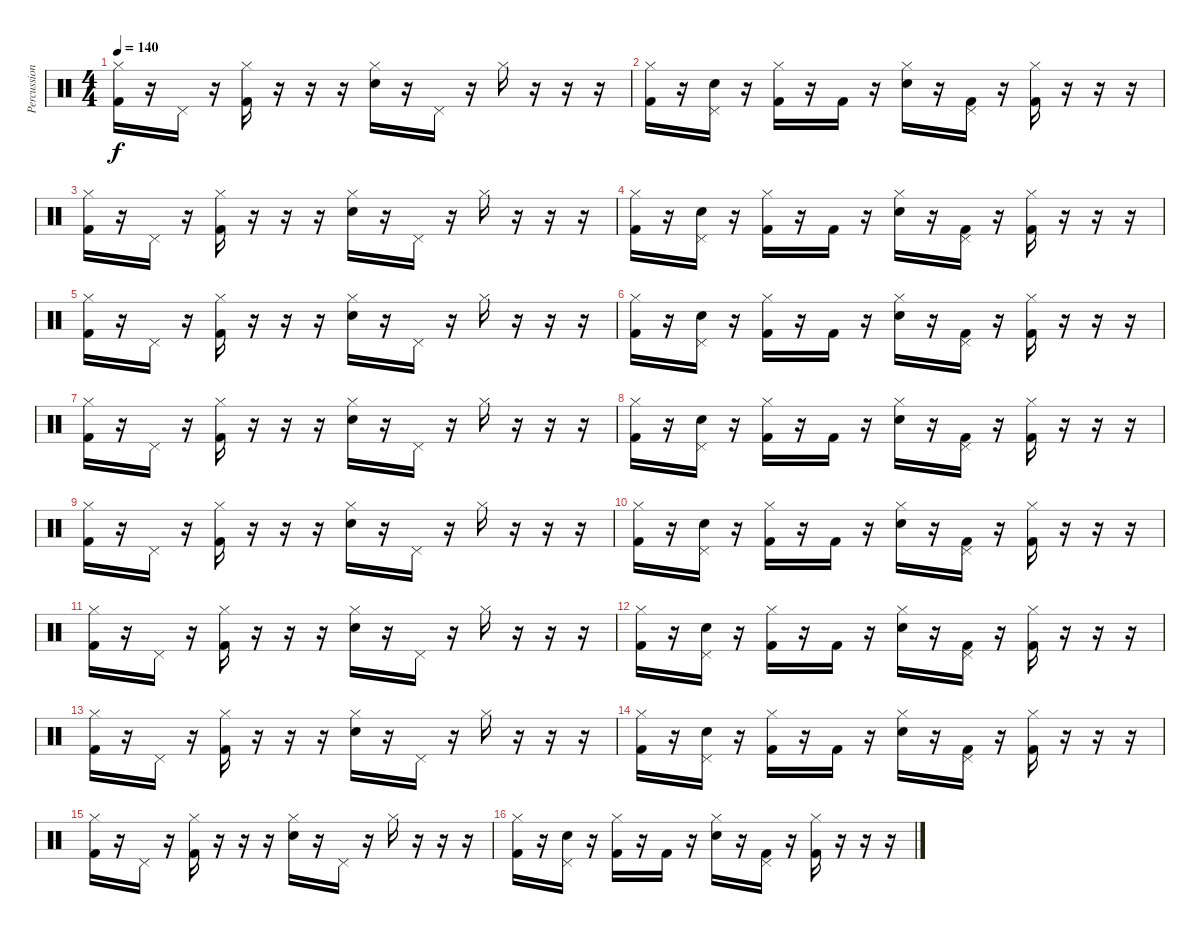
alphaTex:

\track ("Percussion" "Percussion") {instrument percussion}
\staff {score}
\articulation defaults
\ts (4 4)
\tempo 140
\clef neutral
\ks c
("Hi-Hat (closed)" "Kick (hit) 2").16{dy f} r.16 "Pedal Hi-Hat (hit)".16 r.16 ("Hi-Hat (closed)" "Kick (hit) 2").16 r.16 r.16 r.16 ("Hi-Hat (closed)" "Snare (hit) 2").16 r.16 "Pedal Hi-Hat (hit)".16 r.16 "Hi-Hat (closed)".16 r.16 r.16 r.16 |
("Hi-Hat (closed)" "Kick (hit) 2").16 r.16 ("Pedal Hi-Hat (hit)" "Snare (hit) 2").16 r.16 ("Hi-Hat (closed)" "Kick (hit) 2").16 r.16 "Kick (hit) 2".16 r.16 ("Hi-Hat (closed)" "Snare (hit) 2").16 r.16 ("Pedal Hi-Hat (hit)" "Kick (hit) 2").16 r.16 ("Hi-Hat (closed)" "Kick (hit) 2").16 r.16 r.16 r.16 |
("Hi-Hat (closed)" "Kick (hit) 2").16 r.16 "Pedal Hi-Hat (hit)".16 r.16 ("Hi-Hat (closed)" "Kick (hit) 2").16 r.16 r.16 r.16 ("Hi-Hat (closed)" "Snare (hit) 2").16 r.16 "Pedal Hi-Hat (hit)".16 r.16 "Hi-Hat (closed)".16 r.16 r.16 r.16 |
("Hi-Hat (closed)" "Kick (hit) 2").16 r.16 ("Pedal Hi-Hat (hit)" "Snare (hit) 2").16 r.16 ("Hi-Hat (closed)" "Kick (hit) 2").16 r.16 "Kick (hit) 2".16 r.16 ("Hi-Hat (closed)" "Snare (hit) 2").16 r.16 ("Pedal Hi-Hat (hit)" "Kick (hit) 2").16 r.16 ("Hi-Hat (closed)" "Kick (hit) 2").16 r.16 r.16 r.16 |
("Hi-Hat (closed)" "Kick (hit) 2").16 r.16 "Pedal Hi-Hat (hit)".16 r.16 ("Hi-Hat (closed)" "Kick (hit) 2").16 r.16 r.16 r.16 ("Hi-Hat (closed)" "Snare (hit) 2").16 r.16 "Pedal Hi-Hat (hit)".16 r.16 "Hi-Hat (closed)".16 r.16 r.16 r.16 |
("Hi-Hat (closed)" "Kick (hit) 2").16 r.16 ("Pedal Hi-Hat (hit)" "Snare (hit) 2").16 r.16 ("Hi-Hat (closed)" "Kick (hit) 2").16 r.16 "Kick (hit) 2".16 r.16 ("Hi-Hat (closed)" "Snare (hit) 2").16 r.16 ("Pedal Hi-Hat (hit)" "Kick (hit) 2").16 r.16 ("Hi-Hat (closed)" "Kick (hit) 2").16 r.16 r.16 r.16 |
("Hi-Hat (closed)" "Kick (hit) 2").16 r.16 "Pedal Hi-Hat (hit)".16 r.16 ("Hi-Hat (closed)" "Kick (hit) 2").16 r.16 r.16 r.16 ("Hi-Hat (closed)" "Snare (hit) 2").16 r.16 "Pedal Hi-Hat (hit)".16 r.16 "Hi-Hat (closed)".16 r.16 r.16 r.16 |
("Hi-Hat (closed)" "Kick (hit) 2").16 r.16 ("Pedal Hi-Hat (hit)" "Snare (hit) 2").16 r.16 ("Hi-Hat (closed)" "Kick (hit) 2").16 r.16 "Kick (hit) 2".16 r.16 ("Hi-Hat (closed)" "Snare (hit) 2").16 r.16 ("Pedal Hi-Hat (hit)" "Kick (hit) 2").16 r.16 ("Hi-Hat (closed)" "Kick (hit) 2").16 r.16 r.16 r.16 |
("Hi-Hat (closed)" "Kick (hit) 2").16 r.16 "Pedal Hi-Hat (hit)".16 r.16 ("Hi-Hat (closed)" "Kick (hit) 2").16 r.16 r.16 r.16 ("Hi-Hat (closed)" "Snare (hit) 2").16 r.16 "Pedal Hi-Hat (hit)".16 r.16 "Hi-Hat (closed)".16 r.16 r.16 r.16 |
("Hi-Hat (closed)" "Kick (hit) 2").16 r.16 ("Pedal Hi-Hat (hit)" "Snare (hit) 2").16 r.16 ("Hi-Hat (closed)" "Kick (hit) 2").16 r.16 "Kick (hit) 2".16 r.16 ("Hi-Hat (closed)" "Snare (hit) 2").16 r.16 ("Pedal Hi-Hat (hit)" "Kick (hit) 2").16 r.16 ("Hi-Hat (closed)" "Kick (hit) 2").16 r.16 r.16 r.16 |
("Hi-Hat (closed)" "Kick (hit) 2").16 r.16 "Pedal Hi-Hat (hit)".16 r.16 ("Hi-Hat (closed)" "Kick (hit) 2").16 r.16 r.16 r.16 ("Hi-Hat (closed)" "Snare (hit) 2").16 r.16 "Pedal Hi-Hat (hit)".16 r.16 "Hi-Hat (closed)".16 r.16 r.16 r.16 |
("Hi-Hat (closed)" "Kick (hit) 2").16 r.16 ("Pedal Hi-Hat (hit)" "Snare (hit) 2").16 r.16 ("Hi-Hat (closed)" "Kick (hit) 2").16 r.16 "Kick (hit) 2".16 r.16 ("Hi-Hat (closed)" "Snare (hit) 2").16 r.16 ("Pedal Hi-Hat (hit)" "Kick (hit) 2").16 r.16 ("Hi-Hat (closed)" "Kick (hit) 2").16 r.16 r.16 r.16 |
("Hi-Hat (closed)" "Kick (hit) 2").16 r.16 "Pedal Hi-Hat (hit)".16 r.16 ("Hi-Hat (closed)" "Kick (hit) 2").16 r.16 r.16 r.16 ("Hi-Hat (closed)" "Snare (hit) 2").16 r.16 "Pedal Hi-Hat (hit)".16 r.16 "Hi-Hat (closed)".16 r.16 r.16 r.16 |
("Hi-Hat (closed)" "Kick (hit) 2").16 r.16 ("Pedal Hi-Hat (hit)" "Snare (hit) 2").16 r.16 ("Hi-Hat (closed)" "Kick (hit) 2").16 r.16 "Kick (hit) 2".16 r.16 ("Hi-Hat (closed)" "Snare (hit) 2").16 r.16 ("Pedal Hi-Hat (hit)" "Kick (hit) 2").16 r.16 ("Hi-Hat (closed)" "Kick (hit) 2").16 r.16 r.16 r.16 |
("Hi-Hat (closed)" "Kick (hit) 2").16 r.16 "Pedal Hi-Hat (hit)".16 r.16 ("Hi-Hat (closed)" "Kick (hit) 2").16 r.16 r.16 r.16 ("Hi-Hat (closed)" "Snare (hit) 2").16 r.16 "Pedal Hi-Hat (hit)".16 r.16 "Hi-Hat (closed)".16 r.16 r.16 r.16 |
("Hi-Hat (closed)" "Kick (hit) 2").16 r.16 ("Pedal Hi-Hat (hit)" "Snare (hit) 2").16 r.16 ("Hi-Hat (closed)" "Kick (hit) 2").16 r.16 "Kick (hit) 2".16 r.16 ("Hi-Hat (closed)" "Snare (hit) 2").16 r.16 ("Pedal Hi-Hat (hit)" "Kick (hit) 2").16 r.16 ("Hi-Hat (closed)" "Kick (hit) 2").16 r.16 r.16 r.16
